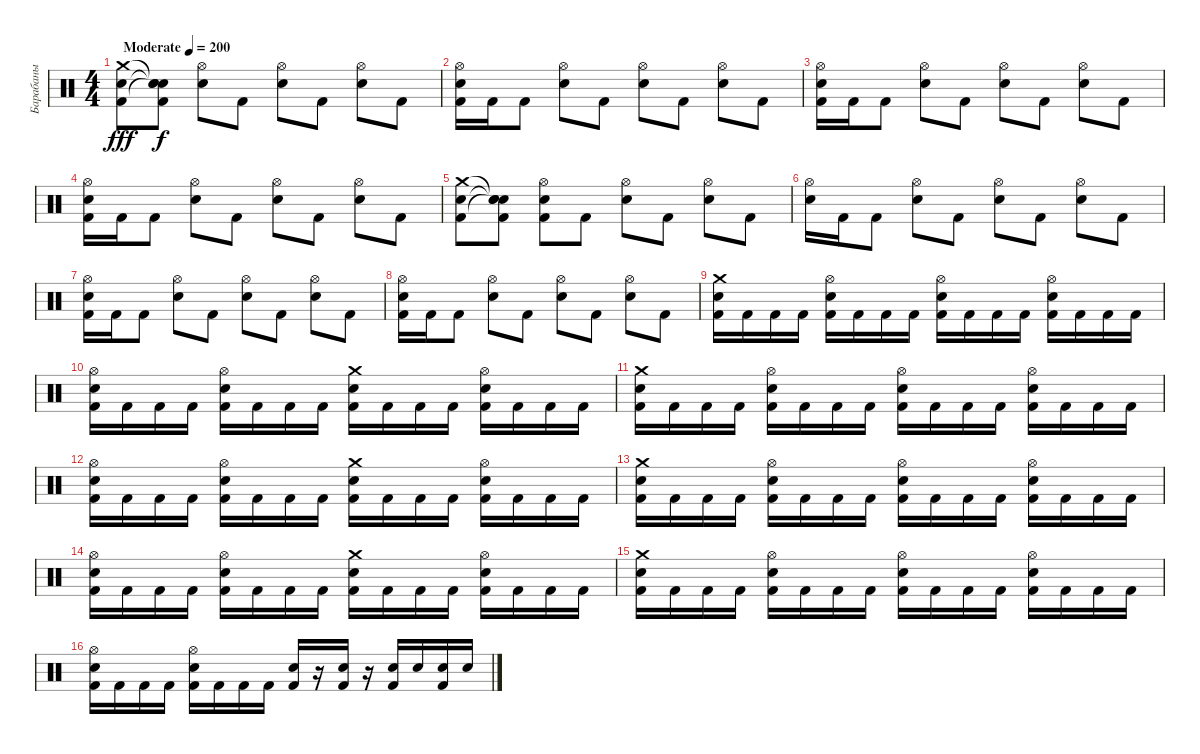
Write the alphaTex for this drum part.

\track ("Барабаны" "Барабаны") {instrument percussion}
\staff {score}
\articulation defaults
\ts (4 4)
\tempo (200 "Moderate")
\clef neutral
\ks c
("Crash medium (hit)" "Electric Snare (hit)" "Kick (hit) 2").8{dy fff} ("Snare (hit)"{t} "Snare (hit)"{t} "Snare (hit)"{t} "Kick (hit) 2").8{dy f} ("Hi-Hat (open)" "Electric Snare (hit)").8 "Kick (hit) 2".8 ("Hi-Hat (open)" "Electric Snare (hit)").8 "Kick (hit) 2".8 ("Hi-Hat (open)" "Electric Snare (hit)").8 "Kick (hit) 2".8 |
("Hi-Hat (open)" "Electric Snare (hit)" "Kick (hit) 2").16 "Kick (hit) 2".16 "Kick (hit) 2".8 ("Hi-Hat (open)" "Electric Snare (hit)").8 "Kick (hit) 2".8 ("Hi-Hat (open)" "Electric Snare (hit)").8 "Kick (hit) 2".8 ("Hi-Hat (open)" "Electric Snare (hit)").8 "Kick (hit) 2".8 |
("Hi-Hat (open)" "Electric Snare (hit)" "Kick (hit) 2").16 "Kick (hit) 2".16 "Kick (hit) 2".8 ("Hi-Hat (open)" "Electric Snare (hit)").8 "Kick (hit) 2".8 ("Hi-Hat (open)" "Electric Snare (hit)").8 "Kick (hit) 2".8 ("Hi-Hat (open)" "Electric Snare (hit)").8 "Kick (hit) 2".8 |
("Hi-Hat (open)" "Electric Snare (hit)" "Kick (hit) 2").16 "Kick (hit) 2".16 "Kick (hit) 2".8 ("Hi-Hat (open)" "Electric Snare (hit)").8 "Kick (hit) 2".8 ("Hi-Hat (open)" "Electric Snare (hit)").8 "Kick (hit) 2".8 ("Hi-Hat (open)" "Electric Snare (hit)").8 "Kick (hit) 2".8 |
("Crash medium (hit)" "Electric Snare (hit)" "Kick (hit) 2").8 ("Snare (hit)"{t} "Snare (hit)"{t} "Snare (hit)"{t} "Kick (hit) 2").8 ("Hi-Hat (open)" "Electric Snare (hit)" "Kick (hit) 2").8 "Kick (hit) 2".8 ("Hi-Hat (open)" "Electric Snare (hit)").8 "Kick (hit) 2".8 ("Hi-Hat (open)" "Electric Snare (hit)").8 "Kick (hit) 2".8 |
("Hi-Hat (open)" "Electric Snare (hit)").16 "Kick (hit) 2".16 "Kick (hit) 2".8 ("Hi-Hat (open)" "Electric Snare (hit)").8 "Kick (hit) 2".8 ("Hi-Hat (open)" "Electric Snare (hit)").8 "Kick (hit) 2".8 ("Hi-Hat (open)" "Electric Snare (hit)").8 "Kick (hit) 2".8 |
("Hi-Hat (open)" "Electric Snare (hit)" "Kick (hit) 2").16 "Kick (hit) 2".16 "Kick (hit) 2".8 ("Hi-Hat (open)" "Electric Snare (hit)").8 "Kick (hit) 2".8 ("Hi-Hat (open)" "Electric Snare (hit)").8 "Kick (hit) 2".8 ("Hi-Hat (open)" "Electric Snare (hit)").8 "Kick (hit) 2".8 |
("Hi-Hat (open)" "Electric Snare (hit)" "Kick (hit) 2").16 "Kick (hit) 2".16 "Kick (hit) 2".8 ("Hi-Hat (open)" "Electric Snare (hit)").8 "Kick (hit) 2".8 ("Hi-Hat (open)" "Electric Snare (hit)").8 "Kick (hit) 2".8 ("Hi-Hat (open)" "Electric Snare (hit)").8 "Kick (hit) 2".8 |
("Crash medium (hit)" "Electric Snare (hit)" "Kick (hit) 2").16 "Kick (hit) 2".16 "Kick (hit) 2".16 "Kick (hit) 2".16 ("Hi-Hat (open)" "Electric Snare (hit)" "Kick (hit) 2").16 "Kick (hit) 2".16 "Kick (hit) 2".16 "Kick (hit) 2".16 ("Hi-Hat (open)" "Electric Snare (hit)" "Kick (hit) 2").16 "Kick (hit) 2".16 "Kick (hit) 2".16 "Kick (hit) 2".16 ("Hi-Hat (open)" "Electric Snare (hit)" "Kick (hit) 2").16 "Kick (hit) 2".16 "Kick (hit) 2".16 "Kick (hit) 2".16 |
("Hi-Hat (open)" "Electric Snare (hit)" "Kick (hit) 2").16 "Kick (hit) 2".16 "Kick (hit) 2".16 "Kick (hit) 2".16 ("Hi-Hat (open)" "Electric Snare (hit)" "Kick (hit) 2").16 "Kick (hit) 2".16 "Kick (hit) 2".16 "Kick (hit) 2".16 ("Crash medium (hit)" "Electric Snare (hit)" "Kick (hit) 2").16 "Kick (hit) 2".16 "Kick (hit) 2".16 "Kick (hit) 2".16 ("Hi-Hat (open)" "Electric Snare (hit)" "Kick (hit) 2").16 "Kick (hit) 2".16 "Kick (hit) 2".16 "Kick (hit) 2".16 |
("Crash medium (hit)" "Electric Snare (hit)" "Kick (hit) 2").16 "Kick (hit) 2".16 "Kick (hit) 2".16 "Kick (hit) 2".16 ("Hi-Hat (open)" "Electric Snare (hit)" "Kick (hit) 2").16 "Kick (hit) 2".16 "Kick (hit) 2".16 "Kick (hit) 2".16 ("Hi-Hat (open)" "Electric Snare (hit)" "Kick (hit) 2").16 "Kick (hit) 2".16 "Kick (hit) 2".16 "Kick (hit) 2".16 ("Hi-Hat (open)" "Electric Snare (hit)" "Kick (hit) 2").16 "Kick (hit) 2".16 "Kick (hit) 2".16 "Kick (hit) 2".16 |
("Hi-Hat (open)" "Electric Snare (hit)" "Kick (hit) 2").16 "Kick (hit) 2".16 "Kick (hit) 2".16 "Kick (hit) 2".16 ("Hi-Hat (open)" "Electric Snare (hit)" "Kick (hit) 2").16 "Kick (hit) 2".16 "Kick (hit) 2".16 "Kick (hit) 2".16 ("Crash medium (hit)" "Electric Snare (hit)" "Kick (hit) 2").16 "Kick (hit) 2".16 "Kick (hit) 2".16 "Kick (hit) 2".16 ("Hi-Hat (open)" "Electric Snare (hit)" "Kick (hit) 2").16 "Kick (hit) 2".16 "Kick (hit) 2".16 "Kick (hit) 2".16 |
("Crash medium (hit)" "Electric Snare (hit)" "Kick (hit) 2").16 "Kick (hit) 2".16 "Kick (hit) 2".16 "Kick (hit) 2".16 ("Hi-Hat (open)" "Electric Snare (hit)" "Kick (hit) 2").16 "Kick (hit) 2".16 "Kick (hit) 2".16 "Kick (hit) 2".16 ("Hi-Hat (open)" "Electric Snare (hit)" "Kick (hit) 2").16 "Kick (hit) 2".16 "Kick (hit) 2".16 "Kick (hit) 2".16 ("Hi-Hat (open)" "Electric Snare (hit)" "Kick (hit) 2").16 "Kick (hit) 2".16 "Kick (hit) 2".16 "Kick (hit) 2".16 |
("Hi-Hat (open)" "Electric Snare (hit)" "Kick (hit) 2").16 "Kick (hit) 2".16 "Kick (hit) 2".16 "Kick (hit) 2".16 ("Hi-Hat (open)" "Electric Snare (hit)" "Kick (hit) 2").16 "Kick (hit) 2".16 "Kick (hit) 2".16 "Kick (hit) 2".16 ("Crash medium (hit)" "Electric Snare (hit)" "Kick (hit) 2").16 "Kick (hit) 2".16 "Kick (hit) 2".16 "Kick (hit) 2".16 ("Hi-Hat (open)" "Electric Snare (hit)" "Kick (hit) 2").16 "Kick (hit) 2".16 "Kick (hit) 2".16 "Kick (hit) 2".16 |
("Crash medium (hit)" "Electric Snare (hit)" "Kick (hit) 2").16 "Kick (hit) 2".16 "Kick (hit) 2".16 "Kick (hit) 2".16 ("Hi-Hat (open)" "Electric Snare (hit)" "Kick (hit) 2").16 "Kick (hit) 2".16 "Kick (hit) 2".16 "Kick (hit) 2".16 ("Hi-Hat (open)" "Electric Snare (hit)" "Kick (hit) 2").16 "Kick (hit) 2".16 "Kick (hit) 2".16 "Kick (hit) 2".16 ("Hi-Hat (open)" "Electric Snare (hit)" "Kick (hit) 2").16 "Kick (hit) 2".16 "Kick (hit) 2".16 "Kick (hit) 2".16 |
("Hi-Hat (open)" "Electric Snare (hit)" "Kick (hit) 2").16 "Kick (hit) 2".16 "Kick (hit) 2".16 "Kick (hit) 2".16 ("Hi-Hat (open)" "Electric Snare (hit)" "Kick (hit) 2").16 "Kick (hit) 2".16 "Kick (hit) 2".16 "Kick (hit) 2".16 ("Electric Snare (hit)" "Kick (hit) 2").16 r.16 ("Electric Snare (hit)" "Kick (hit) 2").16 r.16 ("Electric Snare (hit)" "Kick (hit) 2").16 "Electric Snare (hit)".16 ("Electric Snare (hit)" "Kick (hit) 2").16 "Electric Snare (hit)".16
